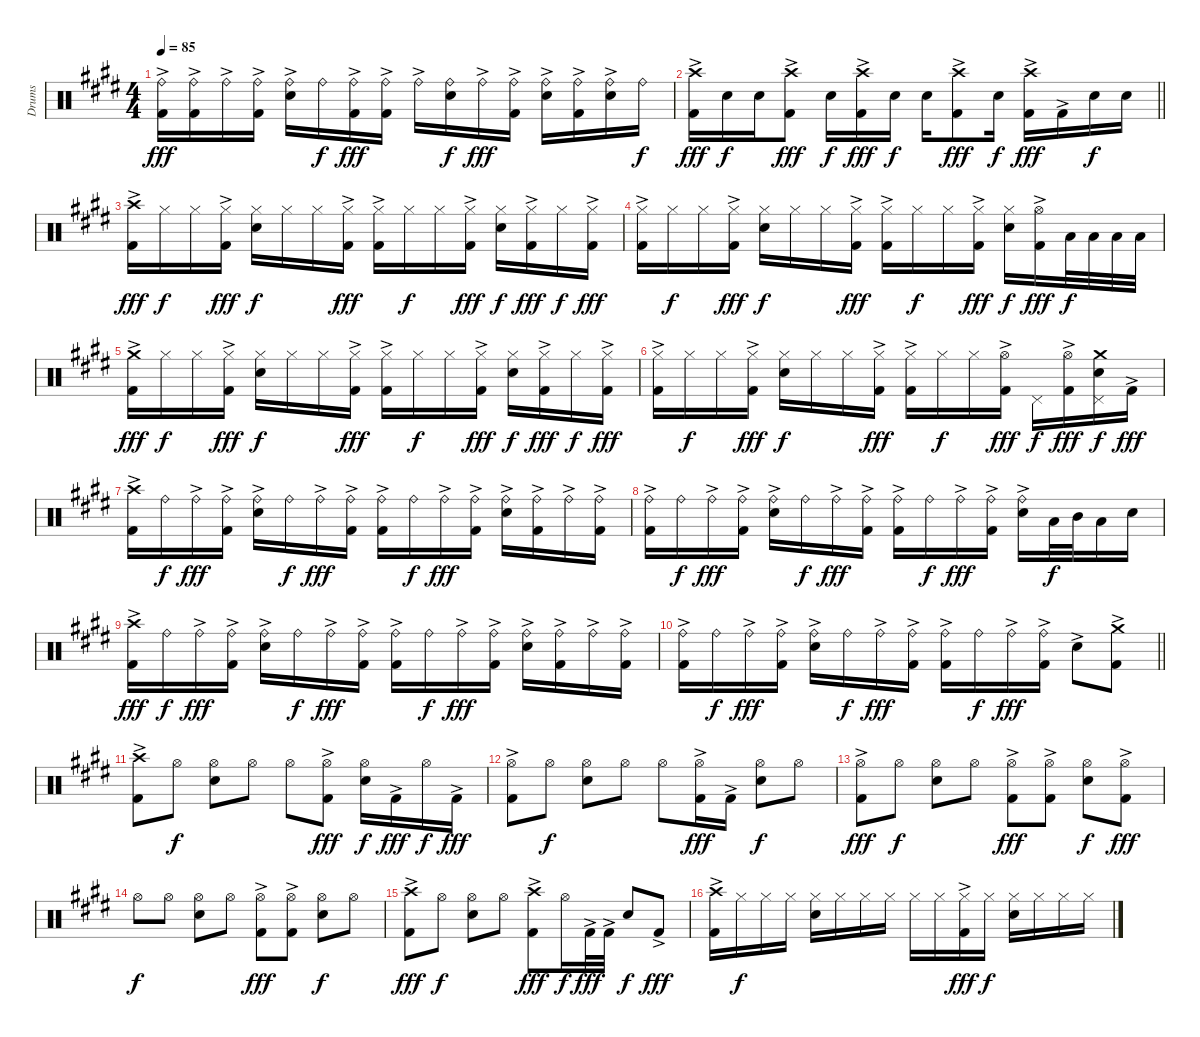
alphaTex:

\track ("Drums" "Drums") {instrument percussion}
\staff {score}
\articulation defaults
\ts (4 4)
\tempo 85
\clef neutral
\ks e
("Ride (bell)"{ac} "Kick (hit) 2"{ac}).16{dy fff} ("Ride (bell)" "Kick (hit) 2"{ac}).16 "Ride (bell)"{ac}.16 ("Ride (bell)" "Kick (hit) 2"{ac}).16 ("Ride (bell)"{ac} "Snare (hit) 2").16 "Ride (bell)".16{dy f} ("Ride (bell)"{ac} "Kick (hit) 2"{ac}).16{dy fff} ("Ride (bell)" "Kick (hit) 2"{ac}).16 "Ride (bell)"{ac}.16 ("Ride (bell)" "Snare (hit) 2").16{dy f} "Ride (bell)"{ac}.16{dy fff} ("Ride (bell)" "Kick (hit) 2"{ac}).16 ("Ride (bell)"{ac} "Snare (hit) 2").16 ("Ride (bell)" "Kick (hit) 2"{ac}).16 ("Ride (bell)"{ac} "Snare (hit) 2").16 "Ride (bell)".16{dy f} |
\barLineRight lightlight
("Crash high (hit)" "Kick (hit) 2"{ac}).16{dy fff} "Snare (hit) 2".16{dy f} "Snare (hit) 2".16 ("Crash high (hit)" "Kick (hit) 2"{ac}).8{dy fff} "Snare (hit) 2".16{dy f} ("Crash high (hit)" "Kick (hit) 2"{ac}).16{dy fff} "Snare (hit) 2".16{dy f} "Snare (hit) 2".16 ("Crash high (hit)" "Kick (hit) 2"{ac}).8{dy fff} "Snare (hit) 2".16{dy f} ("Crash high (hit)" "Kick (hit) 2"{ac}).16{dy fff} "Kick (hit) 2"{ac}.16 "Snare (hit) 2".16{dy f} "Snare (hit) 2".16 |
("Crash high (hit)" "Kick (hit) 2"{ac}).16{dy fff} "Hi-Hat (closed)".16{dy f} "Hi-Hat (closed)".16 ("Hi-Hat (closed)" "Kick (hit) 2"{ac}).16{dy fff} ("Hi-Hat (closed)" "Snare (hit) 2").16{dy f} "Hi-Hat (closed)".16 "Hi-Hat (closed)".16 ("Hi-Hat (closed)" "Kick (hit) 2"{ac}).16{dy fff} ("Hi-Hat (closed)" "Kick (hit) 2"{ac}).16 "Hi-Hat (closed)".16{dy f} "Hi-Hat (closed)".16 ("Hi-Hat (closed)" "Kick (hit) 2"{ac}).16{dy fff} ("Hi-Hat (closed)" "Snare (hit) 2").16{dy f} ("Hi-Hat (closed)" "Kick (hit) 2"{ac}).16{dy fff} "Hi-Hat (closed)".16{dy f} ("Hi-Hat (closed)" "Kick (hit) 2"{ac}).16{dy fff} |
("Hi-Hat (closed)" "Kick (hit) 2"{ac}).16 "Hi-Hat (closed)".16{dy f} "Hi-Hat (closed)".16 ("Hi-Hat (closed)" "Kick (hit) 2"{ac}).16{dy fff} ("Hi-Hat (closed)" "Snare (hit) 2").16{dy f} "Hi-Hat (closed)".16 "Hi-Hat (closed)".16 ("Hi-Hat (closed)" "Kick (hit) 2"{ac}).16{dy fff} ("Hi-Hat (closed)" "Kick (hit) 2"{ac}).16 "Hi-Hat (closed)".16{dy f} "Hi-Hat (closed)".16 ("Hi-Hat (closed)" "Kick (hit) 2"{ac}).16{dy fff} ("Hi-Hat (closed)" "Snare (hit) 2").16{dy f} ("Hi-Hat (open)" "Kick (hit) 2"{ac}).16{dy fff} "Low Tom (hit)".32{dy f} "Low Tom (hit)".32 "Low Tom (hit)".32 "Low Tom (hit)".32 |
("Crash medium (hit)" "Kick (hit) 2"{ac}).16{dy fff} "Hi-Hat (closed)".16{dy f} "Hi-Hat (closed)".16 ("Hi-Hat (closed)" "Kick (hit) 2"{ac}).16{dy fff} ("Hi-Hat (closed)" "Snare (hit) 2").16{dy f} "Hi-Hat (closed)".16 "Hi-Hat (closed)".16 ("Hi-Hat (closed)" "Kick (hit) 2"{ac}).16{dy fff} ("Hi-Hat (closed)" "Kick (hit) 2"{ac}).16 "Hi-Hat (closed)".16{dy f} "Hi-Hat (closed)".16 ("Hi-Hat (closed)" "Kick (hit) 2"{ac}).16{dy fff} ("Hi-Hat (closed)" "Snare (hit) 2").16{dy f} ("Hi-Hat (closed)" "Kick (hit) 2"{ac}).16{dy fff} "Hi-Hat (closed)".16{dy f} ("Hi-Hat (closed)" "Kick (hit) 2"{ac}).16{dy fff} |
("Hi-Hat (closed)" "Kick (hit) 2"{ac}).16 "Hi-Hat (closed)".16{dy f} "Hi-Hat (closed)".16 ("Hi-Hat (closed)" "Kick (hit) 2"{ac}).16{dy fff} ("Hi-Hat (closed)" "Snare (hit) 2").16{dy f} "Hi-Hat (closed)".16 "Hi-Hat (closed)".16 ("Hi-Hat (closed)" "Kick (hit) 2"{ac}).16{dy fff} ("Hi-Hat (closed)" "Kick (hit) 2"{ac}).16 "Hi-Hat (closed)".16{dy f} "Hi-Hat (closed)".16 ("Hi-Hat (open)" "Kick (hit) 2"{ac}).16{dy fff} "Pedal Hi-Hat (hit)".16{dy f} ("Hi-Hat (open)" "Kick (hit) 2"{ac}).16{dy fff} ("Pedal Hi-Hat (hit)" "Crash medium (hit)" "Snare (hit) 2").16{dy f} "Kick (hit) 2"{ac}.16{dy fff} |
("Crash high (hit)" "Kick (hit) 2"{ac}).16 "Ride (bell)".16{dy f} "Ride (bell)"{ac}.16{dy fff} ("Ride (bell)" "Kick (hit) 2"{ac}).16 ("Ride (bell)"{ac} "Snare (hit) 2").16 "Ride (bell)".16{dy f} "Ride (bell)"{ac}.16{dy fff} ("Ride (bell)" "Kick (hit) 2"{ac}).16 ("Ride (bell)"{ac} "Kick (hit) 2"{ac}).16 "Ride (bell)".16{dy f} "Ride (bell)"{ac}.16{dy fff} ("Ride (bell)" "Kick (hit) 2"{ac}).16 ("Ride (bell)"{ac} "Snare (hit) 2").16 ("Ride (bell)" "Kick (hit) 2"{ac}).16 "Ride (bell)"{ac}.16 ("Ride (bell)" "Kick (hit) 2"{ac}).16 |
("Ride (bell)"{ac} "Kick (hit) 2"{ac}).16 "Ride (bell)".16{dy f} "Ride (bell)"{ac}.16{dy fff} ("Ride (bell)" "Kick (hit) 2"{ac}).16 ("Ride (bell)"{ac} "Snare (hit) 2").16 "Ride (bell)".16{dy f} "Ride (bell)"{ac}.16{dy fff} ("Ride (bell)" "Kick (hit) 2"{ac}).16 ("Ride (bell)"{ac} "Kick (hit) 2"{ac}).16 "Ride (bell)".16{dy f} "Ride (bell)"{ac}.16{dy fff} ("Ride (bell)" "Kick (hit) 2"{ac}).16 ("Ride (bell)"{ac} "Snare (hit) 2").16 "Low Tom (hit)".32{dy f} "Mid Tom (hit)".32 "Low Tom (hit)".16 "Snare (hit) 2".16 |
("Crash high (hit)" "Kick (hit) 2"{ac}).16{dy fff} "Ride (bell)".16{dy f} "Ride (bell)"{ac}.16{dy fff} ("Ride (bell)" "Kick (hit) 2"{ac}).16 ("Ride (bell)"{ac} "Snare (hit) 2").16 "Ride (bell)".16{dy f} "Ride (bell)"{ac}.16{dy fff} ("Ride (bell)" "Kick (hit) 2"{ac}).16 ("Ride (bell)"{ac} "Kick (hit) 2"{ac}).16 "Ride (bell)".16{dy f} "Ride (bell)"{ac}.16{dy fff} ("Ride (bell)" "Kick (hit) 2"{ac}).16 ("Ride (bell)"{ac} "Snare (hit) 2").16 ("Ride (bell)" "Kick (hit) 2"{ac}).16 "Ride (bell)"{ac}.16 ("Ride (bell)" "Kick (hit) 2"{ac}).16 |
\barLineRight lightlight
("Ride (bell)"{ac} "Kick (hit) 2"{ac}).16 "Ride (bell)".16{dy f} "Ride (bell)"{ac}.16{dy fff} ("Ride (bell)" "Kick (hit) 2"{ac}).16 ("Ride (bell)"{ac} "Snare (hit) 2").16 "Ride (bell)".16{dy f} "Ride (bell)"{ac}.16{dy fff} ("Ride (bell)" "Kick (hit) 2"{ac}).16 ("Ride (bell)"{ac} "Kick (hit) 2"{ac}).16 "Ride (bell)".16{dy f} "Ride (bell)"{ac}.16{dy fff} ("Ride (bell)" "Kick (hit) 2"{ac}).16 "Snare (hit) 2"{ac}.8 ("Crash medium (hit)" "Kick (hit) 2"{ac}).8 |
("Crash high (hit)" "Kick (hit) 2"{ac}).8 "Hi-Hat (open)".8{dy f} ("Hi-Hat (open)" "Snare (hit) 2").8 "Hi-Hat (open)".8 "Hi-Hat (open)".8 ("Hi-Hat (open)" "Kick (hit) 2"{ac}).8{dy fff} ("Hi-Hat (open)" "Snare (hit) 2").16{dy f} "Kick (hit) 2"{ac}.16{dy fff} "Hi-Hat (open)".16{dy f} "Kick (hit) 2"{ac}.16{dy fff} |
("Hi-Hat (open)" "Kick (hit) 2"{ac}).8 "Hi-Hat (open)".8{dy f} ("Hi-Hat (open)" "Snare (hit) 2").8 "Hi-Hat (open)".8 "Hi-Hat (open)".8 ("Hi-Hat (open)" "Kick (hit) 2"{ac}).16{dy fff} "Kick (hit) 2"{ac}.16 ("Hi-Hat (open)" "Snare (hit) 2").8{dy f} "Hi-Hat (open)".8 |
("Hi-Hat (open)" "Kick (hit) 2"{ac}).8{dy fff} "Hi-Hat (open)".8{dy f} ("Hi-Hat (open)" "Snare (hit) 2").8 "Hi-Hat (open)".8 ("Hi-Hat (open)" "Kick (hit) 2"{ac}).8{dy fff} ("Hi-Hat (open)" "Kick (hit) 2"{ac}).8 ("Hi-Hat (open)" "Snare (hit) 2").8{dy f} ("Hi-Hat (open)" "Kick (hit) 2"{ac}).8{dy fff} |
"Hi-Hat (open)".8{dy f} "Hi-Hat (open)".8 ("Hi-Hat (open)" "Snare (hit) 2").8 "Hi-Hat (open)".8 ("Hi-Hat (open)" "Kick (hit) 2"{ac}).8{dy fff} ("Hi-Hat (open)" "Kick (hit) 2"{ac}).8 ("Hi-Hat (open)" "Snare (hit) 2").8{dy f} "Hi-Hat (open)".8 |
("Crash high (hit)" "Kick (hit) 2"{ac}).8{dy fff} "Hi-Hat (open)".8{dy f} ("Hi-Hat (open)" "Snare (hit) 2").8 "Hi-Hat (open)".8 ("Crash high (hit)" "Kick (hit) 2"{ac}).8{dy fff} "Hi-Hat (open)".16{dy f} "Kick (hit) 2"{ac}.32{dy fff} "Kick (hit) 2"{ac}.32 "Snare (hit) 2".8{dy f} "Kick (hit) 2"{ac}.8{dy fff} |
("Crash high (hit)" "Kick (hit) 2"{ac}).16 "Hi-Hat (closed)".16{dy f} "Hi-Hat (closed)".16 "Hi-Hat (closed)".16 ("Hi-Hat (closed)" "Snare (hit) 2").16 "Hi-Hat (closed)".16 "Hi-Hat (closed)".16 "Hi-Hat (closed)".16 "Hi-Hat (closed)".16 "Hi-Hat (closed)".16 ("Hi-Hat (closed)" "Kick (hit) 2"{ac}).16{dy fff} "Hi-Hat (closed)".16{dy f} ("Hi-Hat (closed)" "Snare (hit) 2").16 "Hi-Hat (closed)".16 "Hi-Hat (closed)".16 "Hi-Hat (closed)".16
